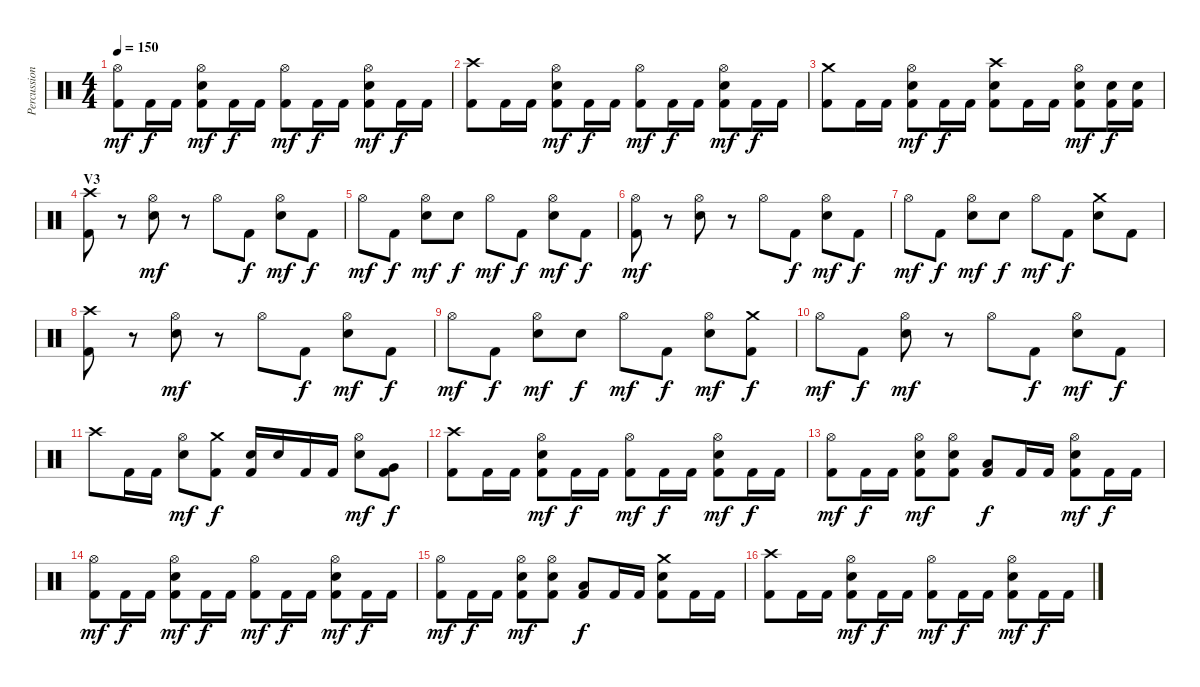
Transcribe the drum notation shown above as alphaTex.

\track ("Percussion" "Percussion") {instrument percussion}
\staff {score}
\articulation defaults
\ts (4 4)
\tempo 150
\clef neutral
\ks c
("Hi-Hat (open)" "Kick (hit) 2").8{dy mf} "Kick (hit) 2".16{dy f} "Kick (hit) 2".16 ("Hi-Hat (open)" "Electric Snare (hit)" "Kick (hit) 2").8{dy mf} "Kick (hit) 2".16{dy f} "Kick (hit) 2".16 ("Hi-Hat (open)" "Kick (hit) 2").8{dy mf} "Kick (hit) 2".16{dy f} "Kick (hit) 2".16 ("Hi-Hat (open)" "Electric Snare (hit)" "Kick (hit) 2").8{dy mf} "Kick (hit) 2".16{dy f} "Kick (hit) 2".16 |
("Crash high (hit)" "Kick (hit) 2").8 "Kick (hit) 2".16 "Kick (hit) 2".16 ("Hi-Hat (open)" "Electric Snare (hit)" "Kick (hit) 2").8{dy mf} "Kick (hit) 2".16{dy f} "Kick (hit) 2".16 ("Hi-Hat (open)" "Kick (hit) 2").8{dy mf} "Kick (hit) 2".16{dy f} "Kick (hit) 2".16 ("Hi-Hat (open)" "Electric Snare (hit)" "Kick (hit) 2").8{dy mf} "Kick (hit) 2".16{dy f} "Kick (hit) 2".16 |
("Crash medium (hit)" "Kick (hit) 2").8 "Kick (hit) 2".16 "Kick (hit) 2".16 ("Hi-Hat (open)" "Electric Snare (hit)" "Kick (hit) 2").8{dy mf} "Kick (hit) 2".16{dy f} "Kick (hit) 2".16 ("Crash high (hit)" "Electric Snare (hit)" "Kick (hit) 2").8 "Kick (hit) 2".16 "Kick (hit) 2".16 ("Hi-Hat (open)" "Electric Snare (hit)" "Kick (hit) 2").8{dy mf} ("Electric Snare (hit)" "Kick (hit) 2").16{dy f} ("Electric Snare (hit)" "Kick (hit) 2").16 |
\section ("" "V3")
("Crash high (hit)" "Kick (hit) 2").8 r.8 ("Hi-Hat (open)" "Electric Snare (hit)").8{dy mf} r.8 "Hi-Hat (open)".8 "Kick (hit) 2".8{dy f} ("Hi-Hat (open)" "Electric Snare (hit)").8{dy mf} "Kick (hit) 2".8{dy f} |
"Hi-Hat (open)".8{dy mf} "Kick (hit) 2".8{dy f} ("Hi-Hat (open)" "Electric Snare (hit)").8{dy mf} "Electric Snare (hit)".8{dy f} "Hi-Hat (open)".8{dy mf} "Kick (hit) 2".8{dy f} ("Hi-Hat (open)" "Electric Snare (hit)").8{dy mf} "Kick (hit) 2".8{dy f} |
("Hi-Hat (open)" "Kick (hit) 2").8{dy mf} r.8 ("Hi-Hat (open)" "Electric Snare (hit)").8 r.8 "Hi-Hat (open)".8 "Kick (hit) 2".8{dy f} ("Hi-Hat (open)" "Electric Snare (hit)").8{dy mf} "Kick (hit) 2".8{dy f} |
"Hi-Hat (open)".8{dy mf} "Kick (hit) 2".8{dy f} ("Hi-Hat (open)" "Electric Snare (hit)").8{dy mf} "Electric Snare (hit)".8{dy f} "Hi-Hat (open)".8{dy mf} "Kick (hit) 2".8{dy f} ("Crash medium (hit)" "Electric Snare (hit)").8 "Kick (hit) 2".8 |
("Crash high (hit)" "Kick (hit) 2").8 r.8 ("Hi-Hat (open)" "Electric Snare (hit)").8{dy mf} r.8 "Hi-Hat (open)".8 "Kick (hit) 2".8{dy f} ("Hi-Hat (open)" "Electric Snare (hit)").8{dy mf} "Kick (hit) 2".8{dy f} |
"Hi-Hat (open)".8{dy mf} "Kick (hit) 2".8{dy f} ("Hi-Hat (open)" "Electric Snare (hit)").8{dy mf} "Electric Snare (hit)".8{dy f} "Hi-Hat (open)".8{dy mf} "Kick (hit) 2".8{dy f} ("Hi-Hat (open)" "Electric Snare (hit)").8{dy mf} ("Crash medium (hit)" "Kick (hit) 2").8{dy f} |
"Hi-Hat (open)".8{dy mf} "Kick (hit) 2".8{dy f} ("Hi-Hat (open)" "Electric Snare (hit)").8{dy mf} r.8 "Hi-Hat (open)".8 "Kick (hit) 2".8{dy f} ("Hi-Hat (open)" "Electric Snare (hit)").8{dy mf} "Kick (hit) 2".8{dy f} |
"Crash high (hit)".8 "Kick (hit) 2".16 "Kick (hit) 2".16 ("Hi-Hat (open)" "Electric Snare (hit)").8{dy mf} ("Crash medium (hit)" "Kick (hit) 2").8{dy f} ("Electric Snare (hit)" "Kick (hit) 2").16 "Electric Snare (hit)".16 "Kick (hit) 2".16 "Kick (hit) 2".16 ("Hi-Hat (open)" "Electric Snare (hit)").8{dy mf} ("Very Low Tom (hit)" "Kick (hit) 2").8{dy f} |
\section ("" "")
("Crash high (hit)" "Kick (hit) 2").8 "Kick (hit) 2".16 "Kick (hit) 2".16 ("Hi-Hat (open)" "Electric Snare (hit)" "Kick (hit) 2").8{dy mf} "Kick (hit) 2".16{dy f} "Kick (hit) 2".16 ("Hi-Hat (open)" "Kick (hit) 2").8{dy mf} "Kick (hit) 2".16{dy f} "Kick (hit) 2".16 ("Hi-Hat (open)" "Electric Snare (hit)" "Kick (hit) 2").8{dy mf} "Kick (hit) 2".16{dy f} "Kick (hit) 2".16 |
("Hi-Hat (open)" "Kick (hit) 2").8{dy mf} "Kick (hit) 2".16{dy f} "Kick (hit) 2".16 ("Hi-Hat (open)" "Electric Snare (hit)" "Kick (hit) 2").8{dy mf} ("Hi-Hat (open)" "Electric Snare (hit)" "Kick (hit) 2").8 ("Low Floor Tom (hit)" "Kick (hit) 2").8{dy f} "Kick (hit) 2".16 "Kick (hit) 2".16 ("Hi-Hat (open)" "Electric Snare (hit)" "Kick (hit) 2").8{dy mf} "Kick (hit) 2".16{dy f} "Kick (hit) 2".16 |
("Hi-Hat (open)" "Kick (hit) 2").8{dy mf} "Kick (hit) 2".16{dy f} "Kick (hit) 2".16 ("Hi-Hat (open)" "Electric Snare (hit)" "Kick (hit) 2").8{dy mf} "Kick (hit) 2".16{dy f} "Kick (hit) 2".16 ("Hi-Hat (open)" "Kick (hit) 2").8{dy mf} "Kick (hit) 2".16{dy f} "Kick (hit) 2".16 ("Hi-Hat (open)" "Electric Snare (hit)" "Kick (hit) 2").8{dy mf} "Kick (hit) 2".16{dy f} "Kick (hit) 2".16 |
("Hi-Hat (open)" "Kick (hit) 2").8{dy mf} "Kick (hit) 2".16{dy f} "Kick (hit) 2".16 ("Hi-Hat (open)" "Electric Snare (hit)" "Kick (hit) 2").8{dy mf} ("Hi-Hat (open)" "Electric Snare (hit)" "Kick (hit) 2").8 ("Low Floor Tom (hit)" "Kick (hit) 2").8{dy f} "Kick (hit) 2".16 "Kick (hit) 2".16 ("Crash medium (hit)" "Electric Snare (hit)" "Kick (hit) 2").8 "Kick (hit) 2".16 "Kick (hit) 2".16 |
("Crash high (hit)" "Kick (hit) 2").8 "Kick (hit) 2".16 "Kick (hit) 2".16 ("Hi-Hat (open)" "Electric Snare (hit)" "Kick (hit) 2").8{dy mf} "Kick (hit) 2".16{dy f} "Kick (hit) 2".16 ("Hi-Hat (open)" "Kick (hit) 2").8{dy mf} "Kick (hit) 2".16{dy f} "Kick (hit) 2".16 ("Hi-Hat (open)" "Electric Snare (hit)" "Kick (hit) 2").8{dy mf} "Kick (hit) 2".16{dy f} "Kick (hit) 2".16
